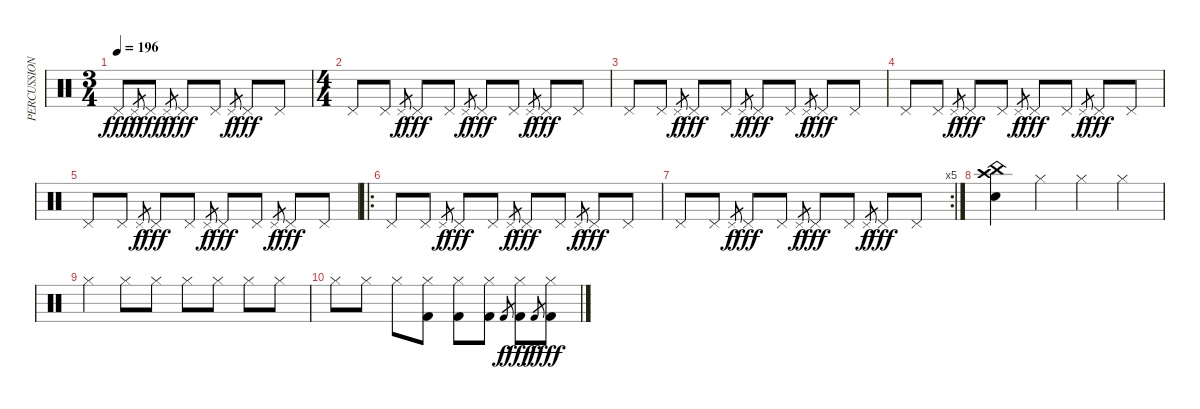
\track ("PERCUSSION" "PERCUSSION") {instrument percussion}
\staff {score}
\articulation defaults
\ts (3 4)
\tempo 196
\clef neutral
\ks c "Pedal Hi-Hat (hit)".8{dy fff} "Pedal Hi-Hat (hit)".8{gr dy f} "Pedal Hi-Hat (hit)".8{dy fff} "Pedal Hi-Hat (hit)".8{gr dy f} "Pedal Hi-Hat (hit)".8{dy fff} "Pedal Hi-Hat (hit)".8 "Pedal Hi-Hat (hit)".8{gr dy f} "Pedal Hi-Hat (hit)".8{dy fff} "Pedal Hi-Hat (hit)".8
|
\ts (4 4)
"Pedal Hi-Hat (hit)".8 "Pedal Hi-Hat (hit)".8 "Pedal Hi-Hat (hit)".8{gr dy f} "Pedal Hi-Hat (hit)".8{dy fff} "Pedal Hi-Hat (hit)".8 "Pedal Hi-Hat (hit)".8{gr dy f} "Pedal Hi-Hat (hit)".8{dy fff} "Pedal Hi-Hat (hit)".8 "Pedal Hi-Hat (hit)".8{gr dy f} "Pedal Hi-Hat (hit)".8{dy fff} "Pedal Hi-Hat (hit)".8 |
"Pedal Hi-Hat (hit)".8 "Pedal Hi-Hat (hit)".8 "Pedal Hi-Hat (hit)".8{gr dy f} "Pedal Hi-Hat (hit)".8{dy fff} "Pedal Hi-Hat (hit)".8 "Pedal Hi-Hat (hit)".8{gr dy f} "Pedal Hi-Hat (hit)".8{dy fff} "Pedal Hi-Hat (hit)".8 "Pedal Hi-Hat (hit)".8{gr dy f} "Pedal Hi-Hat (hit)".8{dy fff} "Pedal Hi-Hat (hit)".8 |
"Pedal Hi-Hat (hit)".8 "Pedal Hi-Hat (hit)".8 "Pedal Hi-Hat (hit)".8{gr dy f} "Pedal Hi-Hat (hit)".8{dy fff} "Pedal Hi-Hat (hit)".8 "Pedal Hi-Hat (hit)".8{gr dy f} "Pedal Hi-Hat (hit)".8{dy fff} "Pedal Hi-Hat (hit)".8 "Pedal Hi-Hat (hit)".8{gr dy f} "Pedal Hi-Hat (hit)".8{dy fff} "Pedal Hi-Hat (hit)".8 |
"Pedal Hi-Hat (hit)".8 "Pedal Hi-Hat (hit)".8 "Pedal Hi-Hat (hit)".8{gr dy f} "Pedal Hi-Hat (hit)".8{dy fff} "Pedal Hi-Hat (hit)".8 "Pedal Hi-Hat (hit)".8{gr dy f} "Pedal Hi-Hat (hit)".8{dy fff} "Pedal Hi-Hat (hit)".8 "Pedal Hi-Hat (hit)".8{gr dy f} "Pedal Hi-Hat (hit)".8{dy fff} "Pedal Hi-Hat (hit)".8 |
\ro "Pedal Hi-Hat (hit)".8 "Pedal Hi-Hat (hit)".8 "Pedal Hi-Hat (hit)".8{gr dy f} "Pedal Hi-Hat (hit)".8{dy fff} "Pedal Hi-Hat (hit)".8 "Pedal Hi-Hat (hit)".8{gr dy f} "Pedal Hi-Hat (hit)".8{dy fff} "Pedal Hi-Hat (hit)".8 "Pedal Hi-Hat (hit)".8{gr dy f} "Pedal Hi-Hat (hit)".8{dy fff} "Pedal Hi-Hat (hit)".8
|
\rc 5 "Pedal Hi-Hat (hit)".8 "Pedal Hi-Hat (hit)".8 "Pedal Hi-Hat (hit)".8{gr dy f} "Pedal Hi-Hat (hit)".8{dy fff} "Pedal Hi-Hat (hit)".8 "Pedal Hi-Hat (hit)".8{gr dy f} "Pedal Hi-Hat (hit)".8{dy fff} "Pedal Hi-Hat (hit)".8 "Pedal Hi-Hat (hit)".8{gr dy f} "Pedal Hi-Hat (hit)".8{dy fff} "Pedal Hi-Hat (hit)".8
|
("Electric Snare (hit)" "Crash high (hit)" "China (hit)").4 "Hi-Hat (closed)".4 "Hi-Hat (closed)".4 "Hi-Hat (closed)".4 |
"Hi-Hat (closed)".4 "Hi-Hat (closed)".8 "Hi-Hat (closed)".8 "Hi-Hat (closed)".8 "Hi-Hat (closed)".8 "Hi-Hat (closed)".8 "Hi-Hat (closed)".8 |
"Hi-Hat (closed)".8 "Hi-Hat (closed)".8 "Hi-Hat (closed)".8 ("Hi-Hat (closed)" "Kick (hit) 2").8 ("Hi-Hat (closed)" "Kick (hit) 2").8 ("Hi-Hat (closed)" "Kick (hit) 2").8 "Kick (hit) 2".8{gr dy f} ("Hi-Hat (closed)" "Kick (hit) 2").8{dy fff} "Kick (hit) 2".8{gr dy f} ("Hi-Hat (closed)" "Kick (hit) 2").8{dy fff}
